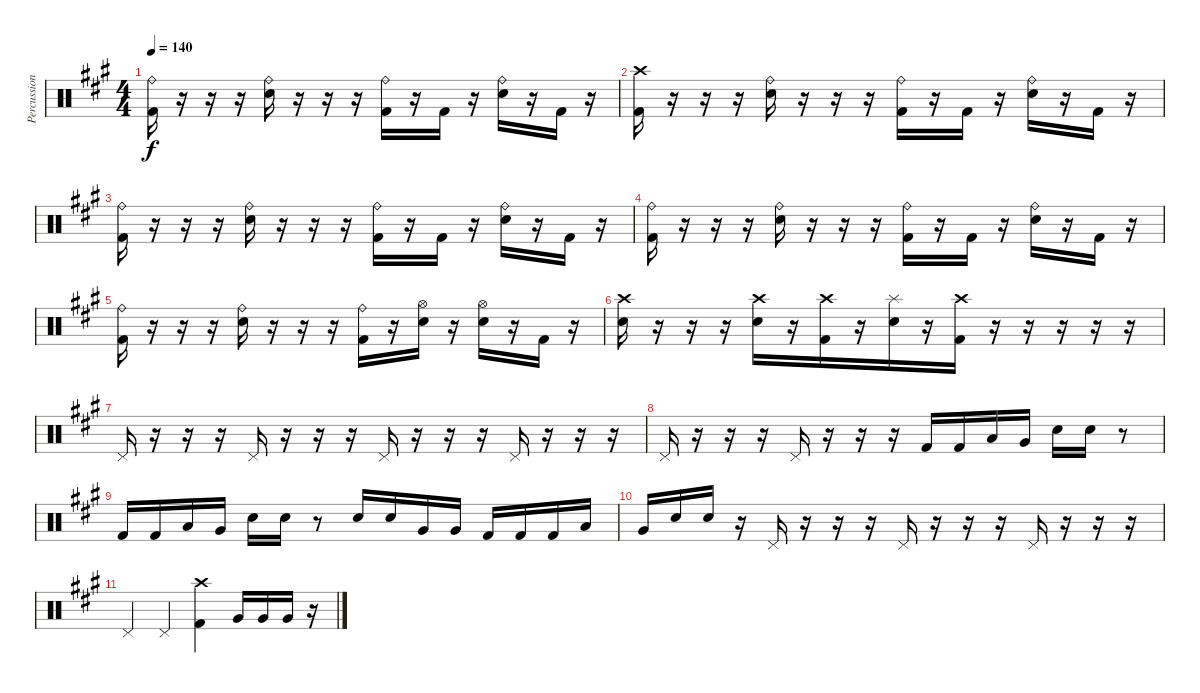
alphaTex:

\track ("Percussion" "Percussion") {instrument percussion}
\staff {score}
\articulation defaults
\ts (4 4)
\tempo 140
\clef neutral
\ks a
("Kick (hit) 2" "Ride (bell)").16{dy f} r.16{beam merge} r.16 r.16{beam merge} ("Electric Snare (hit)" "Ride (bell)").16 r.16 r.16{beam merge} r.16 ("Kick (hit) 2" "Ride (bell)").16 r.16 "Kick (hit) 2".16 r.16 ("Electric Snare (hit)" "Ride (bell)").16 r.16{beam merge} "Kick (hit) 2".16 r.16 |
("Kick (hit) 2" "Crash high (hit)").16 r.16{beam merge} r.16 r.16{beam merge} ("Electric Snare (hit)" "Ride (bell)").16 r.16 r.16{beam merge} r.16 ("Kick (hit) 2" "Ride (bell)").16 r.16 "Kick (hit) 2".16 r.16 ("Electric Snare (hit)" "Ride (bell)").16 r.16{beam merge} "Kick (hit) 2".16 r.16 |
("Kick (hit) 2" "Ride (bell)").16 r.16{beam merge} r.16 r.16{beam merge} ("Electric Snare (hit)" "Ride (bell)").16 r.16 r.16{beam merge} r.16 ("Kick (hit) 2" "Ride (bell)").16 r.16 "Kick (hit) 2".16 r.16 ("Electric Snare (hit)" "Ride (bell)").16 r.16{beam merge} "Kick (hit) 2".16 r.16 |
("Kick (hit) 2" "Ride (bell)").16 r.16{beam merge} r.16 r.16{beam merge} ("Electric Snare (hit)" "Ride (bell)").16 r.16 r.16{beam merge} r.16 ("Kick (hit) 2" "Ride (bell)").16 r.16 "Kick (hit) 2".16 r.16 ("Electric Snare (hit)" "Ride (bell)").16 r.16{beam merge} "Kick (hit) 2".16 r.16 |
("Kick (hit) 2" "Ride (bell)").16 r.16{beam merge} r.16 r.16{beam merge} ("Electric Snare (hit)" "Ride (bell)").16 r.16 r.16{beam merge} r.16 ("Kick (hit) 2" "Ride (bell)").16 r.16 ("Electric Snare (hit)" "Hi-Hat (open)").16 r.16 ("Electric Snare (hit)" "Hi-Hat (open)").16 r.16{beam merge} "Kick (hit) 2".16 r.16 |
("Electric Snare (hit)" "Crash high (hit)").16 r.16{beam merge} r.16 r.16{beam merge} ("Electric Snare (hit)" "Crash high (hit)").16 r.16 ("Kick (hit) 2" "Crash high (hit)").16{beam merge} r.16 ("Electric Snare (hit)" "Splash (hit)").16 r.16 ("Kick (hit) 2" "Crash high (hit)").16 r.16 r.16 r.16{beam merge} r.16 r.16 |
"Pedal Hi-Hat (hit)".16 r.16{beam merge} r.16 r.16{beam merge} "Pedal Hi-Hat (hit)".16 r.16 r.16{beam merge} r.16 "Pedal Hi-Hat (hit)".16 r.16 r.16 r.16 "Pedal Hi-Hat (hit)".16 r.16{beam merge} r.16{beam merge} r.16 |
"Pedal Hi-Hat (hit)".16 r.16{beam merge} r.16 r.16{beam merge} "Pedal Hi-Hat (hit)".16 r.16 r.16{beam merge} r.16 "Kick (hit) 2".16{beam merge} "Kick (hit) 2".16 "Low Tom (hit)".16 "Very Low Tom (hit)".16 "Electric Snare (hit)".16{beam merge} "Electric Snare (hit)".16 r.8 |
"Kick (hit) 2".16{beam merge} "Kick (hit) 2".16 "Low Tom (hit)".16 "Very Low Tom (hit)".16 "Electric Snare (hit)".16 "Electric Snare (hit)".16 r.8{beam merge} "Electric Snare (hit)".16 "Electric Snare (hit)".16 "Very Low Tom (hit)".16 "Very Low Tom (hit)".16 "Kick (hit) 2".16 "Kick (hit) 2".16{beam merge} "Kick (hit) 2".16 "Low Tom (hit)".16 |
"Very Low Tom (hit)".16 "Electric Snare (hit)".16 "Electric Snare (hit)".16 r.16 "Pedal Hi-Hat (hit)".16 r.16{beam merge} r.16 r.16 "Pedal Hi-Hat (hit)".16 r.16 r.16 r.16{beam merge} "Pedal Hi-Hat (hit)".16 r.16 r.16 r.16 |
"Pedal Hi-Hat (hit)".4 "Pedal Hi-Hat (hit)".4 ("Kick (hit) 2" "Crash high (hit)").4 "Very Low Tom (hit)".16 "Very Low Tom (hit)".16{beam merge} "Very Low Tom (hit)".16 r.16
